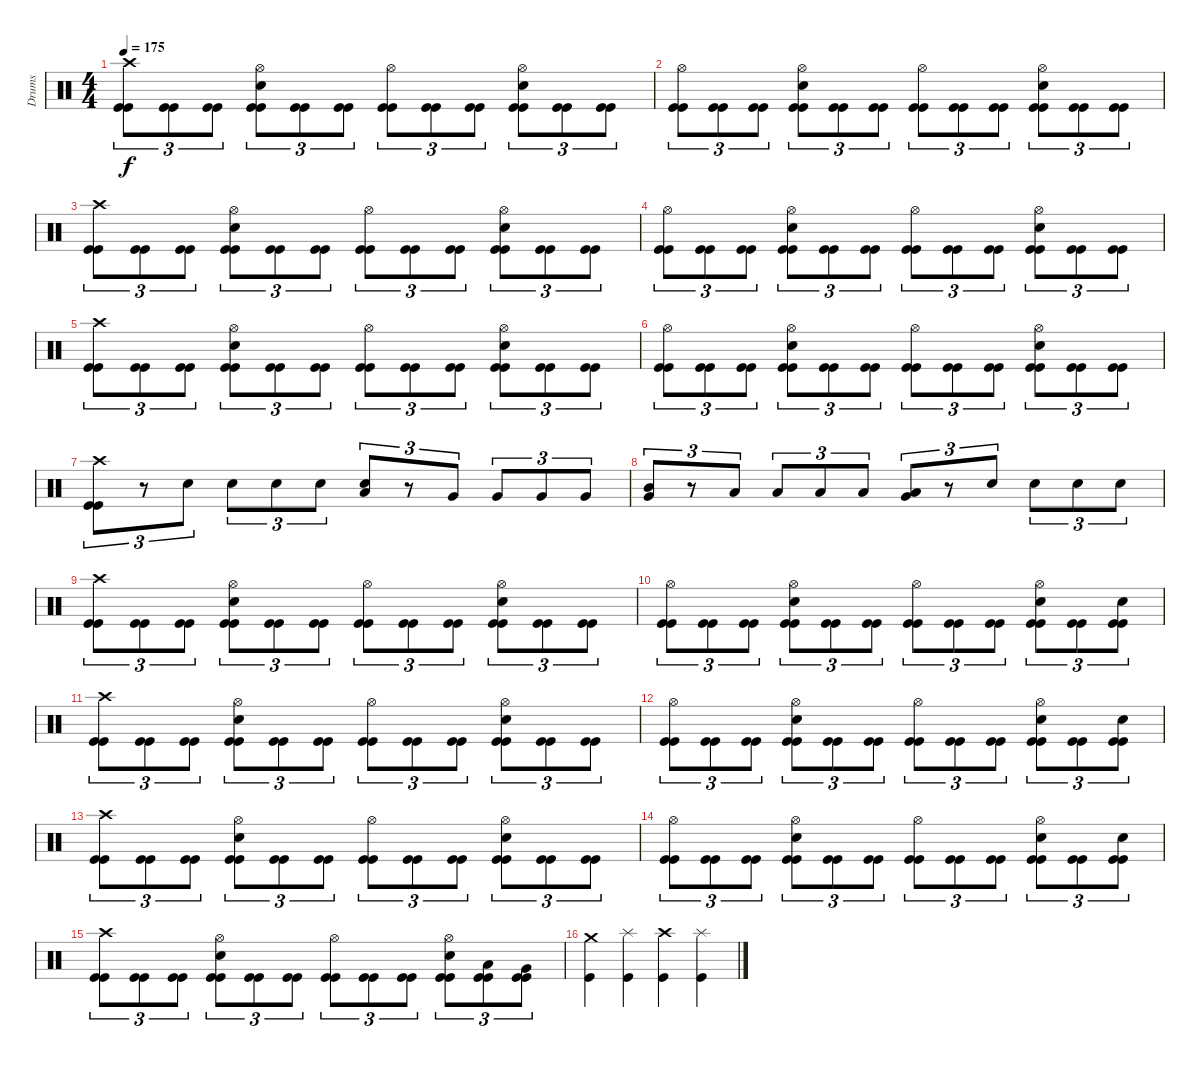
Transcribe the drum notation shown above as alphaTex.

\track ("Drums" "Drums") {instrument percussion}
\staff {score}
\articulation defaults
\ts (4 4)
\tempo 175
\clef neutral
\ks c
("Kick (hit)" "Kick (hit)" "Crash high (hit)").8{tu (3 2) dy f} ("Kick (hit)" "Kick (hit)").8{tu (3 2)} ("Kick (hit)" "Kick (hit)").8{tu (3 2)} ("Kick (hit)" "Kick (hit)" "Snare (hit) 2" "Hi-Hat (open)").8{tu (3 2)} ("Kick (hit)" "Kick (hit)").8{tu (3 2)} ("Kick (hit)" "Kick (hit)").8{tu (3 2)} ("Kick (hit)" "Kick (hit)" "Hi-Hat (open)").8{tu (3 2)} ("Kick (hit)" "Kick (hit)").8{tu (3 2)} ("Kick (hit)" "Kick (hit)").8{tu (3 2)} ("Kick (hit)" "Kick (hit)" "Snare (hit) 2" "Hi-Hat (open)").8{tu (3 2)} ("Kick (hit)" "Kick (hit)").8{tu (3 2)} ("Kick (hit)" "Kick (hit)").8{tu (3 2)} |
("Kick (hit)" "Kick (hit)" "Hi-Hat (open)").8{tu (3 2)} ("Kick (hit)" "Kick (hit)").8{tu (3 2)} ("Kick (hit)" "Kick (hit)").8{tu (3 2)} ("Kick (hit)" "Kick (hit)" "Snare (hit) 2" "Hi-Hat (open)").8{tu (3 2)} ("Kick (hit)" "Kick (hit)").8{tu (3 2)} ("Kick (hit)" "Kick (hit)").8{tu (3 2)} ("Kick (hit)" "Kick (hit)" "Hi-Hat (open)").8{tu (3 2)} ("Kick (hit)" "Kick (hit)").8{tu (3 2)} ("Kick (hit)" "Kick (hit)").8{tu (3 2)} ("Kick (hit)" "Kick (hit)" "Snare (hit) 2" "Hi-Hat (open)").8{tu (3 2)} ("Kick (hit)" "Kick (hit)").8{tu (3 2)} ("Kick (hit)" "Kick (hit)").8{tu (3 2)} |
("Kick (hit)" "Kick (hit)" "Crash high (hit)").8{tu (3 2)} ("Kick (hit)" "Kick (hit)").8{tu (3 2)} ("Kick (hit)" "Kick (hit)").8{tu (3 2)} ("Kick (hit)" "Kick (hit)" "Snare (hit) 2" "Hi-Hat (open)").8{tu (3 2)} ("Kick (hit)" "Kick (hit)").8{tu (3 2)} ("Kick (hit)" "Kick (hit)").8{tu (3 2)} ("Kick (hit)" "Kick (hit)" "Hi-Hat (open)").8{tu (3 2)} ("Kick (hit)" "Kick (hit)").8{tu (3 2)} ("Kick (hit)" "Kick (hit)").8{tu (3 2)} ("Kick (hit)" "Kick (hit)" "Snare (hit) 2" "Hi-Hat (open)").8{tu (3 2)} ("Kick (hit)" "Kick (hit)").8{tu (3 2)} ("Kick (hit)" "Kick (hit)").8{tu (3 2)} |
("Kick (hit)" "Kick (hit)" "Hi-Hat (open)").8{tu (3 2)} ("Kick (hit)" "Kick (hit)").8{tu (3 2)} ("Kick (hit)" "Kick (hit)").8{tu (3 2)} ("Kick (hit)" "Kick (hit)" "Snare (hit) 2" "Hi-Hat (open)").8{tu (3 2)} ("Kick (hit)" "Kick (hit)").8{tu (3 2)} ("Kick (hit)" "Kick (hit)").8{tu (3 2)} ("Kick (hit)" "Kick (hit)" "Hi-Hat (open)").8{tu (3 2)} ("Kick (hit)" "Kick (hit)").8{tu (3 2)} ("Kick (hit)" "Kick (hit)").8{tu (3 2)} ("Kick (hit)" "Kick (hit)" "Snare (hit) 2" "Hi-Hat (open)").8{tu (3 2)} ("Kick (hit)" "Kick (hit)").8{tu (3 2)} ("Kick (hit)" "Kick (hit)").8{tu (3 2)} |
("Kick (hit)" "Kick (hit)" "Crash high (hit)").8{tu (3 2)} ("Kick (hit)" "Kick (hit)").8{tu (3 2)} ("Kick (hit)" "Kick (hit)").8{tu (3 2)} ("Kick (hit)" "Kick (hit)" "Snare (hit) 2" "Hi-Hat (open)").8{tu (3 2)} ("Kick (hit)" "Kick (hit)").8{tu (3 2)} ("Kick (hit)" "Kick (hit)").8{tu (3 2)} ("Kick (hit)" "Kick (hit)" "Hi-Hat (open)").8{tu (3 2)} ("Kick (hit)" "Kick (hit)").8{tu (3 2)} ("Kick (hit)" "Kick (hit)").8{tu (3 2)} ("Kick (hit)" "Kick (hit)" "Snare (hit) 2" "Hi-Hat (open)").8{tu (3 2)} ("Kick (hit)" "Kick (hit)").8{tu (3 2)} ("Kick (hit)" "Kick (hit)").8{tu (3 2)} |
("Kick (hit)" "Kick (hit)" "Hi-Hat (open)").8{tu (3 2)} ("Kick (hit)" "Kick (hit)").8{tu (3 2)} ("Kick (hit)" "Kick (hit)").8{tu (3 2)} ("Kick (hit)" "Kick (hit)" "Snare (hit) 2" "Hi-Hat (open)").8{tu (3 2)} ("Kick (hit)" "Kick (hit)").8{tu (3 2)} ("Kick (hit)" "Kick (hit)").8{tu (3 2)} ("Kick (hit)" "Kick (hit)" "Hi-Hat (open)").8{tu (3 2)} ("Kick (hit)" "Kick (hit)").8{tu (3 2)} ("Kick (hit)" "Kick (hit)").8{tu (3 2)} ("Kick (hit)" "Kick (hit)" "Snare (hit) 2" "Hi-Hat (open)").8{tu (3 2)} ("Kick (hit)" "Kick (hit)").8{tu (3 2)} ("Kick (hit)" "Kick (hit)").8{tu (3 2)} |
("Kick (hit)" "Kick (hit)" "Crash high (hit)").8{tu (3 2)} r.8{tu (3 2)} "Snare (hit) 2".8{tu (3 2)} "Snare (hit) 2".8{tu (3 2)} "Snare (hit) 2".8{tu (3 2)} "Snare (hit) 2".8{tu (3 2)} ("Snare (hit) 2" "Low Tom (hit)").8{tu (3 2)} r.8{tu (3 2)} "Very Low Tom (hit)".8{tu (3 2)} "Very Low Tom (hit)".8{tu (3 2)} "Very Low Tom (hit)".8{tu (3 2)} "Very Low Tom (hit)".8{tu (3 2)} |
("Very Low Tom (hit)" "Mid Tom (hit)").8{tu (3 2)} r.8{tu (3 2)} "Low Floor Tom (hit)".8{tu (3 2)} "Low Floor Tom (hit)".8{tu (3 2)} "Low Floor Tom (hit)".8{tu (3 2)} "Low Floor Tom (hit)".8{tu (3 2)} ("Low Floor Tom (hit)" "Very Low Tom (hit)").8{tu (3 2)} r.8{tu (3 2)} "Snare (hit) 2".8{tu (3 2)} "Snare (hit) 2".8{tu (3 2)} "Snare (hit) 2".8{tu (3 2)} "Snare (hit) 2".8{tu (3 2)} |
("Kick (hit)" "Kick (hit)" "Crash high (hit)").8{tu (3 2)} ("Kick (hit)" "Kick (hit)").8{tu (3 2)} ("Kick (hit)" "Kick (hit)").8{tu (3 2)} ("Kick (hit)" "Kick (hit)" "Snare (hit) 2" "Hi-Hat (open)").8{tu (3 2)} ("Kick (hit)" "Kick (hit)").8{tu (3 2)} ("Kick (hit)" "Kick (hit)").8{tu (3 2)} ("Kick (hit)" "Kick (hit)" "Hi-Hat (open)").8{tu (3 2)} ("Kick (hit)" "Kick (hit)").8{tu (3 2)} ("Kick (hit)" "Kick (hit)").8{tu (3 2)} ("Kick (hit)" "Kick (hit)" "Snare (hit) 2" "Hi-Hat (open)").8{tu (3 2)} ("Kick (hit)" "Kick (hit)").8{tu (3 2)} ("Kick (hit)" "Kick (hit)").8{tu (3 2)} |
("Kick (hit)" "Kick (hit)" "Hi-Hat (open)").8{tu (3 2)} ("Kick (hit)" "Kick (hit)").8{tu (3 2)} ("Kick (hit)" "Kick (hit)").8{tu (3 2)} ("Kick (hit)" "Kick (hit)" "Snare (hit) 2" "Hi-Hat (open)").8{tu (3 2)} ("Kick (hit)" "Kick (hit)").8{tu (3 2)} ("Kick (hit)" "Kick (hit)").8{tu (3 2)} ("Kick (hit)" "Kick (hit)" "Hi-Hat (open)").8{tu (3 2)} ("Kick (hit)" "Kick (hit)").8{tu (3 2)} ("Kick (hit)" "Kick (hit)").8{tu (3 2)} ("Kick (hit)" "Kick (hit)" "Snare (hit) 2" "Hi-Hat (open)").8{tu (3 2)} ("Kick (hit)" "Kick (hit)").8{tu (3 2)} ("Kick (hit)" "Kick (hit)" "Snare (hit) 2").8{tu (3 2)} |
("Kick (hit)" "Kick (hit)" "Crash high (hit)").8{tu (3 2)} ("Kick (hit)" "Kick (hit)").8{tu (3 2)} ("Kick (hit)" "Kick (hit)").8{tu (3 2)} ("Kick (hit)" "Kick (hit)" "Snare (hit) 2" "Hi-Hat (open)").8{tu (3 2)} ("Kick (hit)" "Kick (hit)").8{tu (3 2)} ("Kick (hit)" "Kick (hit)").8{tu (3 2)} ("Kick (hit)" "Kick (hit)" "Hi-Hat (open)").8{tu (3 2)} ("Kick (hit)" "Kick (hit)").8{tu (3 2)} ("Kick (hit)" "Kick (hit)").8{tu (3 2)} ("Kick (hit)" "Kick (hit)" "Snare (hit) 2" "Hi-Hat (open)").8{tu (3 2)} ("Kick (hit)" "Kick (hit)").8{tu (3 2)} ("Kick (hit)" "Kick (hit)").8{tu (3 2)} |
("Kick (hit)" "Kick (hit)" "Hi-Hat (open)").8{tu (3 2)} ("Kick (hit)" "Kick (hit)").8{tu (3 2)} ("Kick (hit)" "Kick (hit)").8{tu (3 2)} ("Kick (hit)" "Kick (hit)" "Snare (hit) 2" "Hi-Hat (open)").8{tu (3 2)} ("Kick (hit)" "Kick (hit)").8{tu (3 2)} ("Kick (hit)" "Kick (hit)").8{tu (3 2)} ("Kick (hit)" "Kick (hit)" "Hi-Hat (open)").8{tu (3 2)} ("Kick (hit)" "Kick (hit)").8{tu (3 2)} ("Kick (hit)" "Kick (hit)").8{tu (3 2)} ("Kick (hit)" "Kick (hit)" "Snare (hit) 2" "Hi-Hat (open)").8{tu (3 2)} ("Kick (hit)" "Kick (hit)").8{tu (3 2)} ("Kick (hit)" "Kick (hit)" "Snare (hit) 2").8{tu (3 2)} |
("Kick (hit)" "Kick (hit)" "Crash high (hit)").8{tu (3 2)} ("Kick (hit)" "Kick (hit)").8{tu (3 2)} ("Kick (hit)" "Kick (hit)").8{tu (3 2)} ("Kick (hit)" "Kick (hit)" "Snare (hit) 2" "Hi-Hat (open)").8{tu (3 2)} ("Kick (hit)" "Kick (hit)").8{tu (3 2)} ("Kick (hit)" "Kick (hit)").8{tu (3 2)} ("Kick (hit)" "Kick (hit)" "Hi-Hat (open)").8{tu (3 2)} ("Kick (hit)" "Kick (hit)").8{tu (3 2)} ("Kick (hit)" "Kick (hit)").8{tu (3 2)} ("Kick (hit)" "Kick (hit)" "Snare (hit) 2" "Hi-Hat (open)").8{tu (3 2)} ("Kick (hit)" "Kick (hit)").8{tu (3 2)} ("Kick (hit)" "Kick (hit)").8{tu (3 2)} |
("Kick (hit)" "Kick (hit)" "Hi-Hat (open)").8{tu (3 2)} ("Kick (hit)" "Kick (hit)").8{tu (3 2)} ("Kick (hit)" "Kick (hit)").8{tu (3 2)} ("Kick (hit)" "Kick (hit)" "Snare (hit) 2" "Hi-Hat (open)").8{tu (3 2)} ("Kick (hit)" "Kick (hit)").8{tu (3 2)} ("Kick (hit)" "Kick (hit)").8{tu (3 2)} ("Kick (hit)" "Kick (hit)" "Hi-Hat (open)").8{tu (3 2)} ("Kick (hit)" "Kick (hit)").8{tu (3 2)} ("Kick (hit)" "Kick (hit)").8{tu (3 2)} ("Kick (hit)" "Kick (hit)" "Snare (hit) 2" "Hi-Hat (open)").8{tu (3 2)} ("Kick (hit)" "Kick (hit)").8{tu (3 2)} ("Kick (hit)" "Kick (hit)" "Snare (hit) 2").8{tu (3 2)} |
("Kick (hit)" "Kick (hit)" "Crash high (hit)").8{tu (3 2)} ("Kick (hit)" "Kick (hit)").8{tu (3 2)} ("Kick (hit)" "Kick (hit)").8{tu (3 2)} ("Kick (hit)" "Kick (hit)" "Snare (hit) 2" "Hi-Hat (open)").8{tu (3 2)} ("Kick (hit)" "Kick (hit)").8{tu (3 2)} ("Kick (hit)" "Kick (hit)").8{tu (3 2)} ("Kick (hit)" "Kick (hit)" "Hi-Hat (open)").8{tu (3 2)} ("Kick (hit)" "Kick (hit)").8{tu (3 2)} ("Kick (hit)" "Kick (hit)").8{tu (3 2)} ("Kick (hit)" "Kick (hit)" "Snare (hit) 2" "Hi-Hat (open)").8{tu (3 2)} ("Kick (hit)" "Kick (hit)" "Low Tom (hit)").8{tu (3 2)} ("Kick (hit)" "Kick (hit)" "Very Low Tom (hit)").8{tu (3 2)} |
("Kick (hit)" "Crash medium (hit)").4 ("Kick (hit)" "Splash (hit)").4 ("Kick (hit)" "Crash high (hit)").4 ("Kick (hit)" "Splash (hit)").4
